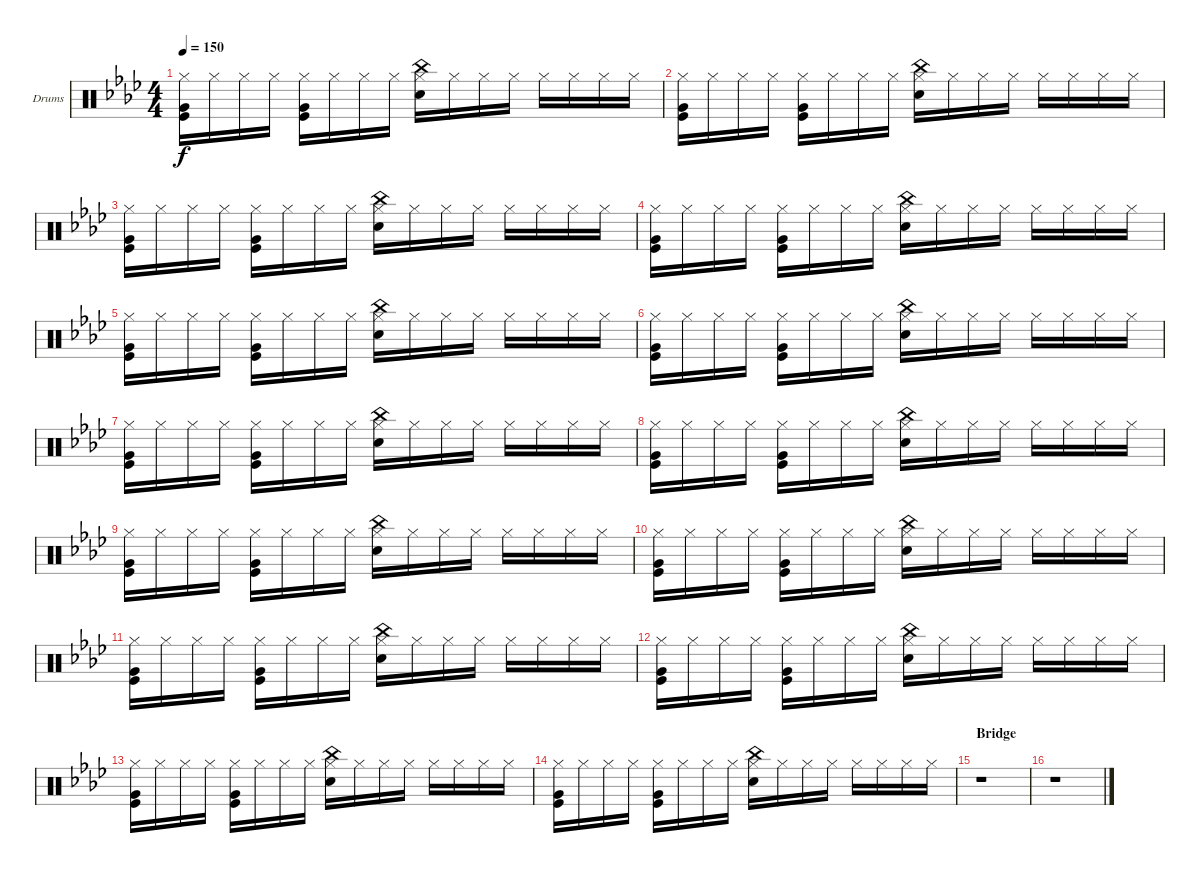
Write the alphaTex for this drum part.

\bracketExtendMode groupsimilarinstruments
\firstSystemTrackNameOrientation horizontal
\otherSystemsTrackNameOrientation horizontal
\track ("Drums" "Drums") {instrument percussion}
\staff {score}
\articulation defaults
\ts (4 4)
\tempo 150
\clef neutral
\ks ab
("Kick (hit)" "Very Low Tom (hit)" "Hi-Hat (closed)").16{dy f} "Hi-Hat (closed)".16 "Hi-Hat (closed)".16 "Hi-Hat (closed)".16 ("Kick (hit)" "Very Low Tom (hit)" "Hi-Hat (closed)").16 "Hi-Hat (closed)".16 "Hi-Hat (closed)".16 "Hi-Hat (closed)".16 ("Hi-Hat (closed)" "Snare (hit) 2" "China (hit)").16 "Hi-Hat (closed)".16 "Hi-Hat (closed)".16 "Hi-Hat (closed)".16 "Hi-Hat (closed)".16 "Hi-Hat (closed)".16 "Hi-Hat (closed)".16 "Hi-Hat (closed)".16 |
("Kick (hit)" "Very Low Tom (hit)" "Hi-Hat (closed)").16 "Hi-Hat (closed)".16 "Hi-Hat (closed)".16 "Hi-Hat (closed)".16 ("Kick (hit)" "Very Low Tom (hit)" "Hi-Hat (closed)").16 "Hi-Hat (closed)".16 "Hi-Hat (closed)".16 "Hi-Hat (closed)".16 ("Hi-Hat (closed)" "Snare (hit) 2" "China (hit)").16 "Hi-Hat (closed)".16 "Hi-Hat (closed)".16 "Hi-Hat (closed)".16 "Hi-Hat (closed)".16 "Hi-Hat (closed)".16 "Hi-Hat (closed)".16 "Hi-Hat (closed)".16 |
("Kick (hit)" "Very Low Tom (hit)" "Hi-Hat (closed)").16 "Hi-Hat (closed)".16 "Hi-Hat (closed)".16 "Hi-Hat (closed)".16 ("Kick (hit)" "Very Low Tom (hit)" "Hi-Hat (closed)").16 "Hi-Hat (closed)".16 "Hi-Hat (closed)".16 "Hi-Hat (closed)".16 ("Hi-Hat (closed)" "Snare (hit) 2" "China (hit)").16 "Hi-Hat (closed)".16 "Hi-Hat (closed)".16 "Hi-Hat (closed)".16 "Hi-Hat (closed)".16 "Hi-Hat (closed)".16 "Hi-Hat (closed)".16 "Hi-Hat (closed)".16 |
("Kick (hit)" "Very Low Tom (hit)" "Hi-Hat (closed)").16 "Hi-Hat (closed)".16 "Hi-Hat (closed)".16 "Hi-Hat (closed)".16 ("Kick (hit)" "Very Low Tom (hit)" "Hi-Hat (closed)").16 "Hi-Hat (closed)".16 "Hi-Hat (closed)".16 "Hi-Hat (closed)".16 ("Hi-Hat (closed)" "Snare (hit) 2" "China (hit)").16 "Hi-Hat (closed)".16 "Hi-Hat (closed)".16 "Hi-Hat (closed)".16 "Hi-Hat (closed)".16 "Hi-Hat (closed)".16 "Hi-Hat (closed)".16 "Hi-Hat (closed)".16 |
("Kick (hit)" "Very Low Tom (hit)" "Hi-Hat (closed)").16 "Hi-Hat (closed)".16 "Hi-Hat (closed)".16 "Hi-Hat (closed)".16 ("Kick (hit)" "Very Low Tom (hit)" "Hi-Hat (closed)").16 "Hi-Hat (closed)".16 "Hi-Hat (closed)".16 "Hi-Hat (closed)".16 ("Hi-Hat (closed)" "Snare (hit) 2" "China (hit)").16 "Hi-Hat (closed)".16 "Hi-Hat (closed)".16 "Hi-Hat (closed)".16 "Hi-Hat (closed)".16 "Hi-Hat (closed)".16 "Hi-Hat (closed)".16 "Hi-Hat (closed)".16 |
("Kick (hit)" "Very Low Tom (hit)" "Hi-Hat (closed)").16 "Hi-Hat (closed)".16 "Hi-Hat (closed)".16 "Hi-Hat (closed)".16 ("Kick (hit)" "Very Low Tom (hit)" "Hi-Hat (closed)").16 "Hi-Hat (closed)".16 "Hi-Hat (closed)".16 "Hi-Hat (closed)".16 ("Hi-Hat (closed)" "Snare (hit) 2" "China (hit)").16 "Hi-Hat (closed)".16 "Hi-Hat (closed)".16 "Hi-Hat (closed)".16 "Hi-Hat (closed)".16 "Hi-Hat (closed)".16 "Hi-Hat (closed)".16 "Hi-Hat (closed)".16 |
("Kick (hit)" "Very Low Tom (hit)" "Hi-Hat (closed)").16 "Hi-Hat (closed)".16 "Hi-Hat (closed)".16 "Hi-Hat (closed)".16 ("Kick (hit)" "Very Low Tom (hit)" "Hi-Hat (closed)").16 "Hi-Hat (closed)".16 "Hi-Hat (closed)".16 "Hi-Hat (closed)".16 ("Hi-Hat (closed)" "Snare (hit) 2" "China (hit)").16 "Hi-Hat (closed)".16 "Hi-Hat (closed)".16 "Hi-Hat (closed)".16 "Hi-Hat (closed)".16 "Hi-Hat (closed)".16 "Hi-Hat (closed)".16 "Hi-Hat (closed)".16 |
("Kick (hit)" "Very Low Tom (hit)" "Hi-Hat (closed)").16 "Hi-Hat (closed)".16 "Hi-Hat (closed)".16 "Hi-Hat (closed)".16 ("Kick (hit)" "Very Low Tom (hit)" "Hi-Hat (closed)").16 "Hi-Hat (closed)".16 "Hi-Hat (closed)".16 "Hi-Hat (closed)".16 ("Hi-Hat (closed)" "Snare (hit) 2" "China (hit)").16 "Hi-Hat (closed)".16 "Hi-Hat (closed)".16 "Hi-Hat (closed)".16 "Hi-Hat (closed)".16 "Hi-Hat (closed)".16 "Hi-Hat (closed)".16 "Hi-Hat (closed)".16 |
("Kick (hit)" "Very Low Tom (hit)" "Hi-Hat (closed)").16 "Hi-Hat (closed)".16 "Hi-Hat (closed)".16 "Hi-Hat (closed)".16 ("Kick (hit)" "Very Low Tom (hit)" "Hi-Hat (closed)").16 "Hi-Hat (closed)".16 "Hi-Hat (closed)".16 "Hi-Hat (closed)".16 ("Hi-Hat (closed)" "Snare (hit) 2" "China (hit)").16 "Hi-Hat (closed)".16 "Hi-Hat (closed)".16 "Hi-Hat (closed)".16 "Hi-Hat (closed)".16 "Hi-Hat (closed)".16 "Hi-Hat (closed)".16 "Hi-Hat (closed)".16 |
("Kick (hit)" "Very Low Tom (hit)" "Hi-Hat (closed)").16 "Hi-Hat (closed)".16 "Hi-Hat (closed)".16 "Hi-Hat (closed)".16 ("Kick (hit)" "Very Low Tom (hit)" "Hi-Hat (closed)").16 "Hi-Hat (closed)".16 "Hi-Hat (closed)".16 "Hi-Hat (closed)".16 ("Hi-Hat (closed)" "Snare (hit) 2" "China (hit)").16 "Hi-Hat (closed)".16 "Hi-Hat (closed)".16 "Hi-Hat (closed)".16 "Hi-Hat (closed)".16 "Hi-Hat (closed)".16 "Hi-Hat (closed)".16 "Hi-Hat (closed)".16 |
("Kick (hit)" "Very Low Tom (hit)" "Hi-Hat (closed)").16 "Hi-Hat (closed)".16 "Hi-Hat (closed)".16 "Hi-Hat (closed)".16 ("Kick (hit)" "Very Low Tom (hit)" "Hi-Hat (closed)").16 "Hi-Hat (closed)".16 "Hi-Hat (closed)".16 "Hi-Hat (closed)".16 ("Hi-Hat (closed)" "Snare (hit) 2" "China (hit)").16 "Hi-Hat (closed)".16 "Hi-Hat (closed)".16 "Hi-Hat (closed)".16 "Hi-Hat (closed)".16 "Hi-Hat (closed)".16 "Hi-Hat (closed)".16 "Hi-Hat (closed)".16 |
("Kick (hit)" "Very Low Tom (hit)" "Hi-Hat (closed)").16 "Hi-Hat (closed)".16 "Hi-Hat (closed)".16 "Hi-Hat (closed)".16 ("Kick (hit)" "Very Low Tom (hit)" "Hi-Hat (closed)").16 "Hi-Hat (closed)".16 "Hi-Hat (closed)".16 "Hi-Hat (closed)".16 ("Hi-Hat (closed)" "Snare (hit) 2" "China (hit)").16 "Hi-Hat (closed)".16 "Hi-Hat (closed)".16 "Hi-Hat (closed)".16 "Hi-Hat (closed)".16 "Hi-Hat (closed)".16 "Hi-Hat (closed)".16 "Hi-Hat (closed)".16 |
("Kick (hit)" "Very Low Tom (hit)" "Hi-Hat (closed)").16 "Hi-Hat (closed)".16 "Hi-Hat (closed)".16 "Hi-Hat (closed)".16 ("Kick (hit)" "Very Low Tom (hit)" "Hi-Hat (closed)").16 "Hi-Hat (closed)".16 "Hi-Hat (closed)".16 "Hi-Hat (closed)".16 ("Hi-Hat (closed)" "Snare (hit) 2" "China (hit)").16 "Hi-Hat (closed)".16 "Hi-Hat (closed)".16 "Hi-Hat (closed)".16 "Hi-Hat (closed)".16 "Hi-Hat (closed)".16 "Hi-Hat (closed)".16 "Hi-Hat (closed)".16 |
("Kick (hit)" "Very Low Tom (hit)" "Hi-Hat (closed)").16 "Hi-Hat (closed)".16 "Hi-Hat (closed)".16 "Hi-Hat (closed)".16 ("Kick (hit)" "Very Low Tom (hit)" "Hi-Hat (closed)").16 "Hi-Hat (closed)".16 "Hi-Hat (closed)".16 "Hi-Hat (closed)".16 ("Hi-Hat (closed)" "Snare (hit) 2" "China (hit)").16 "Hi-Hat (closed)".16 "Hi-Hat (closed)".16 "Hi-Hat (closed)".16 "Hi-Hat (closed)".16 "Hi-Hat (closed)".16 "Hi-Hat (closed)".16 "Hi-Hat (closed)".16 |
\section ("" "Bridge")
r.1 |
r.1
